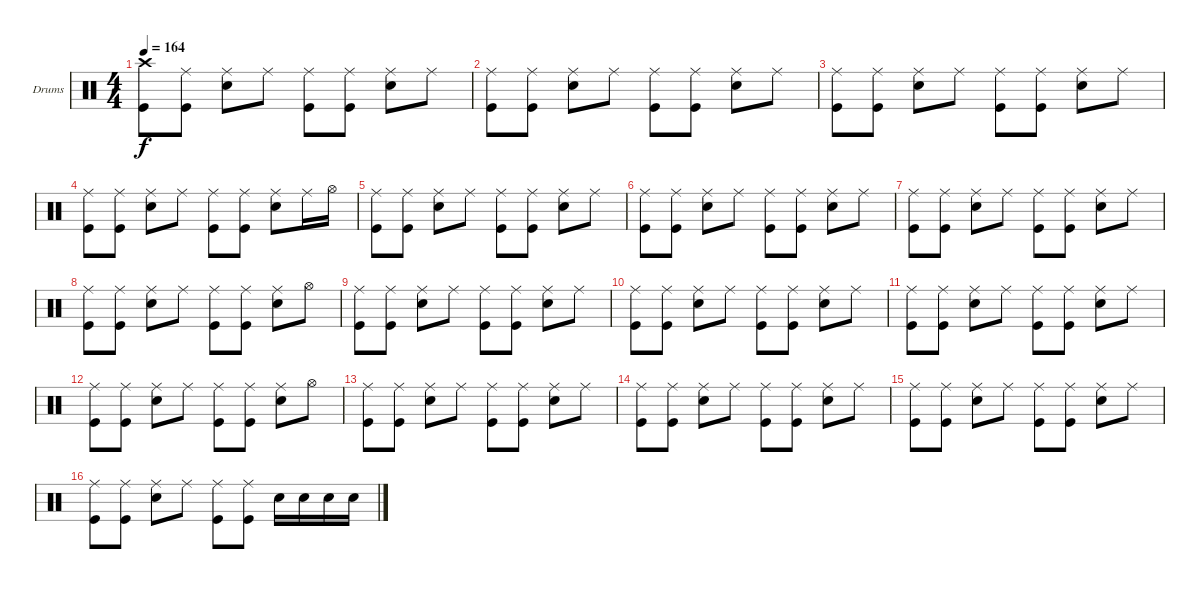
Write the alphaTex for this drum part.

\defaultSystemsLayout 4
\bracketExtendMode groupsimilarinstruments
\firstSystemTrackNameOrientation horizontal
\otherSystemsTrackNameOrientation horizontal
\track ("Drumkit" "Drums") {instrument percussion}
\staff {score}
\articulation defaults
\ts (4 4)
\tempo 164
\clef neutral
\ks c
("Crash high (hit)" "Kick (hit)").8{dy f} ("Kick (hit)" "Ride (middle)").8 ("Snare (hit) 2" "Ride (middle)").8 "Ride (middle)".8 ("Kick (hit)" "Ride (middle)").8 ("Kick (hit)" "Ride (middle)").8 ("Snare (hit) 2" "Ride (middle)").8 "Ride (middle)".8 |
("Kick (hit)" "Ride (middle)").8 ("Kick (hit)" "Ride (middle)").8 ("Snare (hit) 2" "Ride (middle)").8 "Ride (middle)".8 ("Kick (hit)" "Ride (middle)").8 ("Kick (hit)" "Ride (middle)").8 ("Snare (hit) 2" "Ride (middle)").8 "Ride (middle)".8 |
("Kick (hit)" "Ride (middle)").8 ("Kick (hit)" "Ride (middle)").8 ("Snare (hit) 2" "Ride (middle)").8 "Ride (middle)".8 ("Kick (hit)" "Ride (middle)").8 ("Kick (hit)" "Ride (middle)").8 ("Snare (hit) 2" "Ride (middle)").8 "Ride (middle)".8 |
("Kick (hit)" "Ride (middle)").8 ("Kick (hit)" "Ride (middle)").8 ("Snare (hit) 2" "Ride (middle)").8 "Ride (middle)".8 ("Kick (hit)" "Ride (middle)").8 ("Kick (hit)" "Ride (middle)").8 ("Snare (hit) 2" "Ride (middle)").8 "Ride (middle)".16 "Hi-Hat (open)".16 |
("Kick (hit)" "Ride (middle)").8 ("Kick (hit)" "Ride (middle)").8 ("Snare (hit) 2" "Ride (middle)").8 "Ride (middle)".8 ("Kick (hit)" "Ride (middle)").8 ("Kick (hit)" "Ride (middle)").8 ("Snare (hit) 2" "Ride (middle)").8 "Ride (middle)".8 |
("Kick (hit)" "Ride (middle)").8 ("Kick (hit)" "Ride (middle)").8 ("Snare (hit) 2" "Ride (middle)").8 "Ride (middle)".8 ("Kick (hit)" "Ride (middle)").8 ("Kick (hit)" "Ride (middle)").8 ("Snare (hit) 2" "Ride (middle)").8 "Ride (middle)".8 |
("Kick (hit)" "Ride (middle)").8 ("Kick (hit)" "Ride (middle)").8 ("Snare (hit) 2" "Ride (middle)").8 "Ride (middle)".8 ("Kick (hit)" "Ride (middle)").8 ("Kick (hit)" "Ride (middle)").8 ("Snare (hit) 2" "Ride (middle)").8 "Ride (middle)".8 |
("Kick (hit)" "Ride (middle)").8 ("Kick (hit)" "Ride (middle)").8 ("Snare (hit) 2" "Ride (middle)").8 "Ride (middle)".8 ("Kick (hit)" "Ride (middle)").8 ("Kick (hit)" "Ride (middle)").8 ("Snare (hit) 2" "Ride (middle)").8 "Hi-Hat (open)".8 |
("Kick (hit)" "Ride (middle)").8 ("Kick (hit)" "Ride (middle)").8 ("Snare (hit) 2" "Ride (middle)").8 "Ride (middle)".8 ("Kick (hit)" "Ride (middle)").8 ("Kick (hit)" "Ride (middle)").8 ("Snare (hit) 2" "Ride (middle)").8 "Ride (middle)".8 |
("Kick (hit)" "Ride (middle)").8 ("Kick (hit)" "Ride (middle)").8 ("Snare (hit) 2" "Ride (middle)").8 "Ride (middle)".8 ("Kick (hit)" "Ride (middle)").8 ("Kick (hit)" "Ride (middle)").8 ("Snare (hit) 2" "Ride (middle)").8 "Ride (middle)".8 |
("Kick (hit)" "Ride (middle)").8 ("Kick (hit)" "Ride (middle)").8 ("Snare (hit) 2" "Ride (middle)").8 "Ride (middle)".8 ("Kick (hit)" "Ride (middle)").8 ("Kick (hit)" "Ride (middle)").8 ("Snare (hit) 2" "Ride (middle)").8 "Ride (middle)".8 |
("Kick (hit)" "Ride (middle)").8 ("Kick (hit)" "Ride (middle)").8 ("Snare (hit) 2" "Ride (middle)").8 "Ride (middle)".8 ("Kick (hit)" "Ride (middle)").8 ("Kick (hit)" "Ride (middle)").8 ("Snare (hit) 2" "Ride (middle)").8 "Hi-Hat (open)".8 |
("Kick (hit)" "Ride (middle)").8 ("Kick (hit)" "Ride (middle)").8 ("Snare (hit) 2" "Ride (middle)").8 "Ride (middle)".8 ("Kick (hit)" "Ride (middle)").8 ("Kick (hit)" "Ride (middle)").8 ("Snare (hit) 2" "Ride (middle)").8 "Ride (middle)".8 |
("Kick (hit)" "Ride (middle)").8 ("Kick (hit)" "Ride (middle)").8 ("Snare (hit) 2" "Ride (middle)").8 "Ride (middle)".8 ("Kick (hit)" "Ride (middle)").8 ("Kick (hit)" "Ride (middle)").8 ("Snare (hit) 2" "Ride (middle)").8 "Ride (middle)".8 |
("Kick (hit)" "Ride (middle)").8 ("Kick (hit)" "Ride (middle)").8 ("Snare (hit) 2" "Ride (middle)").8 "Ride (middle)".8 ("Kick (hit)" "Ride (middle)").8 ("Kick (hit)" "Ride (middle)").8 ("Snare (hit) 2" "Ride (middle)").8 "Ride (middle)".8 |
("Kick (hit)" "Ride (middle)").8 ("Kick (hit)" "Ride (middle)").8 ("Snare (hit) 2" "Ride (middle)").8 "Ride (middle)".8 ("Kick (hit)" "Ride (middle)").8 ("Kick (hit)" "Ride (middle)").8 "Snare (hit) 2".16 "Snare (hit) 2".16 "Snare (hit) 2".16 "Snare (hit) 2".16
